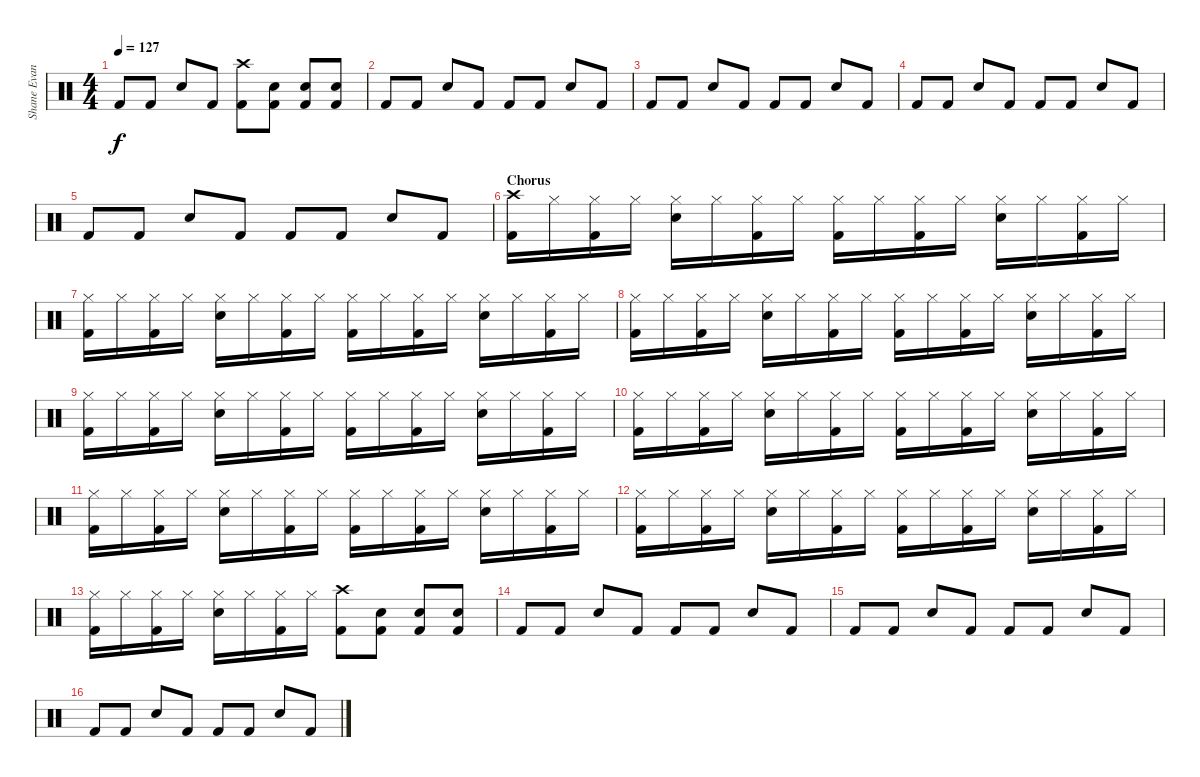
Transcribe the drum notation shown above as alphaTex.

\track ("Shane Evans" "Shane Evan") {instrument percussion}
\staff {score}
\articulation defaults
\ts (4 4)
\tempo 127
\clef neutral
\ks c "Kick (hit) 2".8{dy f} "Kick (hit) 2".8 "Snare (hit) 2".8 "Kick (hit) 2".8
("Crash high (hit)" "Kick (hit) 2").8 ("Snare (hit) 2" "Kick (hit) 2").8 ("Snare (hit) 2" "Kick (hit) 2").8 ("Snare (hit) 2" "Kick (hit) 2").8 |
"Kick (hit) 2".8 "Kick (hit) 2".8 "Snare (hit) 2".8 "Kick (hit) 2".8 "Kick (hit) 2".8 "Kick (hit) 2".8 "Snare (hit) 2".8 "Kick (hit) 2".8 |
"Kick (hit) 2".8 "Kick (hit) 2".8 "Snare (hit) 2".8 "Kick (hit) 2".8 "Kick (hit) 2".8 "Kick (hit) 2".8 "Snare (hit) 2".8 "Kick (hit) 2".8 |
"Kick (hit) 2".8 "Kick (hit) 2".8 "Snare (hit) 2".8 "Kick (hit) 2".8 "Kick (hit) 2".8 "Kick (hit) 2".8 "Snare (hit) 2".8 "Kick (hit) 2".8 |
"Kick (hit) 2".8 "Kick (hit) 2".8 "Snare (hit) 2".8 "Kick (hit) 2".8 "Kick (hit) 2".8 "Kick (hit) 2".8 "Snare (hit) 2".8 "Kick (hit) 2".8 |
\section ("" "Chorus")
("Crash high (hit)" "Kick (hit) 2").16 "Hi-Hat (closed)".16 ("Hi-Hat (closed)" "Kick (hit) 2").16 "Hi-Hat (closed)".16 ("Hi-Hat (closed)" "Snare (hit) 2").16 "Hi-Hat (closed)".16 ("Hi-Hat (closed)" "Kick (hit) 2").16 "Hi-Hat (closed)".16 ("Hi-Hat (closed)" "Kick (hit) 2").16 "Hi-Hat (closed)".16 ("Hi-Hat (closed)" "Kick (hit) 2").16 "Hi-Hat (closed)".16 ("Hi-Hat (closed)" "Snare (hit) 2").16 "Hi-Hat (closed)".16 ("Hi-Hat (closed)" "Kick (hit) 2").16 "Hi-Hat (closed)".16 |
("Hi-Hat (closed)" "Kick (hit) 2").16 "Hi-Hat (closed)".16 ("Hi-Hat (closed)" "Kick (hit) 2").16 "Hi-Hat (closed)".16 ("Hi-Hat (closed)" "Snare (hit) 2").16 "Hi-Hat (closed)".16 ("Hi-Hat (closed)" "Kick (hit) 2").16 "Hi-Hat (closed)".16 ("Hi-Hat (closed)" "Kick (hit) 2").16 "Hi-Hat (closed)".16 ("Hi-Hat (closed)" "Kick (hit) 2").16 "Hi-Hat (closed)".16 ("Hi-Hat (closed)" "Snare (hit) 2").16 "Hi-Hat (closed)".16 ("Hi-Hat (closed)" "Kick (hit) 2").16 "Hi-Hat (closed)".16 |
("Hi-Hat (closed)" "Kick (hit) 2").16 "Hi-Hat (closed)".16 ("Hi-Hat (closed)" "Kick (hit) 2").16 "Hi-Hat (closed)".16 ("Hi-Hat (closed)" "Snare (hit) 2").16 "Hi-Hat (closed)".16 ("Hi-Hat (closed)" "Kick (hit) 2").16 "Hi-Hat (closed)".16 ("Hi-Hat (closed)" "Kick (hit) 2").16 "Hi-Hat (closed)".16 ("Hi-Hat (closed)" "Kick (hit) 2").16 "Hi-Hat (closed)".16 ("Hi-Hat (closed)" "Snare (hit) 2").16 "Hi-Hat (closed)".16 ("Hi-Hat (closed)" "Kick (hit) 2").16 "Hi-Hat (closed)".16 |
("Hi-Hat (closed)" "Kick (hit) 2").16 "Hi-Hat (closed)".16 ("Hi-Hat (closed)" "Kick (hit) 2").16 "Hi-Hat (closed)".16 ("Hi-Hat (closed)" "Snare (hit) 2").16 "Hi-Hat (closed)".16 ("Hi-Hat (closed)" "Kick (hit) 2").16 "Hi-Hat (closed)".16 ("Hi-Hat (closed)" "Kick (hit) 2").16 "Hi-Hat (closed)".16 ("Hi-Hat (closed)" "Kick (hit) 2").16 "Hi-Hat (closed)".16 ("Hi-Hat (closed)" "Snare (hit) 2").16 "Hi-Hat (closed)".16 ("Hi-Hat (closed)" "Kick (hit) 2").16 "Hi-Hat (closed)".16 |
("Hi-Hat (closed)" "Kick (hit) 2").16 "Hi-Hat (closed)".16 ("Hi-Hat (closed)" "Kick (hit) 2").16 "Hi-Hat (closed)".16 ("Hi-Hat (closed)" "Snare (hit) 2").16 "Hi-Hat (closed)".16 ("Hi-Hat (closed)" "Kick (hit) 2").16 "Hi-Hat (closed)".16 ("Hi-Hat (closed)" "Kick (hit) 2").16 "Hi-Hat (closed)".16 ("Hi-Hat (closed)" "Kick (hit) 2").16 "Hi-Hat (closed)".16 ("Hi-Hat (closed)" "Snare (hit) 2").16 "Hi-Hat (closed)".16 ("Hi-Hat (closed)" "Kick (hit) 2").16 "Hi-Hat (closed)".16 |
("Hi-Hat (closed)" "Kick (hit) 2").16 "Hi-Hat (closed)".16 ("Hi-Hat (closed)" "Kick (hit) 2").16 "Hi-Hat (closed)".16 ("Hi-Hat (closed)" "Snare (hit) 2").16 "Hi-Hat (closed)".16 ("Hi-Hat (closed)" "Kick (hit) 2").16 "Hi-Hat (closed)".16 ("Hi-Hat (closed)" "Kick (hit) 2").16 "Hi-Hat (closed)".16 ("Hi-Hat (closed)" "Kick (hit) 2").16 "Hi-Hat (closed)".16 ("Hi-Hat (closed)" "Snare (hit) 2").16 "Hi-Hat (closed)".16 ("Hi-Hat (closed)" "Kick (hit) 2").16 "Hi-Hat (closed)".16 |
("Hi-Hat (closed)" "Kick (hit) 2").16 "Hi-Hat (closed)".16 ("Hi-Hat (closed)" "Kick (hit) 2").16 "Hi-Hat (closed)".16 ("Hi-Hat (closed)" "Snare (hit) 2").16 "Hi-Hat (closed)".16 ("Hi-Hat (closed)" "Kick (hit) 2").16 "Hi-Hat (closed)".16 ("Hi-Hat (closed)" "Kick (hit) 2").16 "Hi-Hat (closed)".16 ("Hi-Hat (closed)" "Kick (hit) 2").16 "Hi-Hat (closed)".16 ("Hi-Hat (closed)" "Snare (hit) 2").16 "Hi-Hat (closed)".16 ("Hi-Hat (closed)" "Kick (hit) 2").16 "Hi-Hat (closed)".16 |
("Hi-Hat (closed)" "Kick (hit) 2").16 "Hi-Hat (closed)".16 ("Hi-Hat (closed)" "Kick (hit) 2").16 "Hi-Hat (closed)".16 ("Hi-Hat (closed)" "Snare (hit) 2").16 "Hi-Hat (closed)".16 ("Hi-Hat (closed)" "Kick (hit) 2").16 "Hi-Hat (closed)".16 ("Crash high (hit)" "Kick (hit) 2").8 ("Snare (hit) 2" "Kick (hit) 2").8 ("Snare (hit) 2" "Kick (hit) 2").8 ("Snare (hit) 2" "Kick (hit) 2").8 |
"Kick (hit) 2".8 "Kick (hit) 2".8 "Snare (hit) 2".8 "Kick (hit) 2".8 "Kick (hit) 2".8 "Kick (hit) 2".8 "Snare (hit) 2".8 "Kick (hit) 2".8 |
"Kick (hit) 2".8 "Kick (hit) 2".8 "Snare (hit) 2".8 "Kick (hit) 2".8 "Kick (hit) 2".8 "Kick (hit) 2".8 "Snare (hit) 2".8 "Kick (hit) 2".8 |
"Kick (hit) 2".8 "Kick (hit) 2".8 "Snare (hit) 2".8 "Kick (hit) 2".8 "Kick (hit) 2".8 "Kick (hit) 2".8 "Snare (hit) 2".8 "Kick (hit) 2".8
